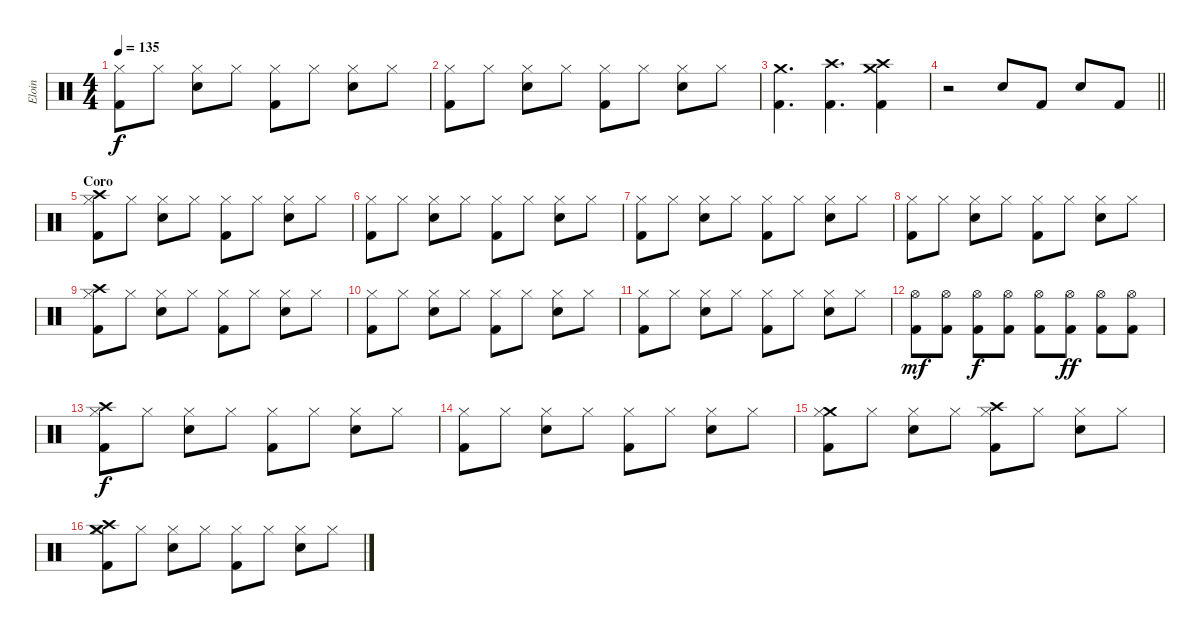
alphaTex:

\track ("Eloin" "Eloin") {instrument percussion}
\staff {score}
\articulation defaults
\ts (4 4)
\tempo 135
\clef neutral
\ks c
("Hi-Hat (closed)" "Kick (hit) 2").8{dy f} "Hi-Hat (closed)".8 ("Hi-Hat (closed)" "Electric Snare (hit)").8 "Hi-Hat (closed)".8 ("Hi-Hat (closed)" "Kick (hit) 2").8 "Hi-Hat (closed)".8 ("Hi-Hat (closed)" "Electric Snare (hit)").8 "Hi-Hat (closed)".8 |
("Hi-Hat (closed)" "Kick (hit) 2").8 "Hi-Hat (closed)".8 ("Hi-Hat (closed)" "Electric Snare (hit)").8 "Hi-Hat (closed)".8 ("Hi-Hat (closed)" "Kick (hit) 2").8 "Hi-Hat (closed)".8 ("Hi-Hat (closed)" "Electric Snare (hit)").8 "Hi-Hat (closed)".8 |
("Kick (hit) 2" "Crash medium (hit)").4{d} ("Kick (hit) 2" "Crash high (hit)").4{d} ("Kick (hit) 2" "Crash high (hit)" "Crash medium (hit)").4 |
\barLineRight lightlight
r.2 "Electric Snare (hit)".8 "Kick (hit) 2".8 "Electric Snare (hit)".8 "Kick (hit) 2".8 |
\section ("" "Coro")
("Crash high (hit)" "Hi-Hat (closed)" "Kick (hit) 2").8 "Hi-Hat (closed)".8 ("Hi-Hat (closed)" "Electric Snare (hit)").8 "Hi-Hat (closed)".8 ("Hi-Hat (closed)" "Kick (hit) 2").8 "Hi-Hat (closed)".8 ("Hi-Hat (closed)" "Electric Snare (hit)").8 "Hi-Hat (closed)".8 |
("Hi-Hat (closed)" "Kick (hit) 2").8 "Hi-Hat (closed)".8 ("Hi-Hat (closed)" "Electric Snare (hit)").8 "Hi-Hat (closed)".8 ("Hi-Hat (closed)" "Kick (hit) 2").8 "Hi-Hat (closed)".8 ("Hi-Hat (closed)" "Electric Snare (hit)").8 "Hi-Hat (closed)".8 |
("Hi-Hat (closed)" "Kick (hit) 2").8 "Hi-Hat (closed)".8 ("Hi-Hat (closed)" "Electric Snare (hit)").8 "Hi-Hat (closed)".8 ("Hi-Hat (closed)" "Kick (hit) 2").8 "Hi-Hat (closed)".8 ("Hi-Hat (closed)" "Electric Snare (hit)").8 "Hi-Hat (closed)".8 |
("Hi-Hat (closed)" "Kick (hit) 2").8 "Hi-Hat (closed)".8 ("Hi-Hat (closed)" "Electric Snare (hit)").8 "Hi-Hat (closed)".8 ("Hi-Hat (closed)" "Kick (hit) 2").8 "Hi-Hat (closed)".8 ("Hi-Hat (closed)" "Electric Snare (hit)").8 "Hi-Hat (closed)".8 |
("Crash high (hit)" "Hi-Hat (closed)" "Kick (hit) 2").8 "Hi-Hat (closed)".8 ("Hi-Hat (closed)" "Electric Snare (hit)").8 "Hi-Hat (closed)".8 ("Hi-Hat (closed)" "Kick (hit) 2").8 "Hi-Hat (closed)".8 ("Hi-Hat (closed)" "Electric Snare (hit)").8 "Hi-Hat (closed)".8 |
("Hi-Hat (closed)" "Kick (hit) 2").8 "Hi-Hat (closed)".8 ("Hi-Hat (closed)" "Electric Snare (hit)").8 "Hi-Hat (closed)".8 ("Hi-Hat (closed)" "Kick (hit) 2").8 "Hi-Hat (closed)".8 ("Hi-Hat (closed)" "Electric Snare (hit)").8 "Hi-Hat (closed)".8 |
("Hi-Hat (closed)" "Kick (hit) 2").8 "Hi-Hat (closed)".8 ("Hi-Hat (closed)" "Electric Snare (hit)").8 "Hi-Hat (closed)".8 ("Hi-Hat (closed)" "Kick (hit) 2").8 "Hi-Hat (closed)".8 ("Hi-Hat (closed)" "Electric Snare (hit)").8 "Hi-Hat (closed)".8 |
("Hi-Hat (open)" "Kick (hit) 2").8{dy mf} ("Hi-Hat (open)" "Kick (hit) 2").8 ("Hi-Hat (open)" "Kick (hit) 2").8{dy f} ("Hi-Hat (open)" "Kick (hit) 2").8 ("Hi-Hat (open)" "Kick (hit) 2").8 ("Hi-Hat (open)" "Kick (hit) 2").8{dy ff} ("Hi-Hat (open)" "Kick (hit) 2").8 ("Hi-Hat (open)" "Kick (hit) 2").8 |
("Crash high (hit)" "Hi-Hat (closed)" "Kick (hit) 2").8{dy f} "Hi-Hat (closed)".8 ("Hi-Hat (closed)" "Electric Snare (hit)").8 "Hi-Hat (closed)".8 ("Hi-Hat (closed)" "Kick (hit) 2").8 "Hi-Hat (closed)".8 ("Hi-Hat (closed)" "Electric Snare (hit)").8 "Hi-Hat (closed)".8 |
("Hi-Hat (closed)" "Kick (hit) 2").8 "Hi-Hat (closed)".8 ("Hi-Hat (closed)" "Electric Snare (hit)").8 "Hi-Hat (closed)".8 ("Hi-Hat (closed)" "Kick (hit) 2").8 "Hi-Hat (closed)".8 ("Hi-Hat (closed)" "Electric Snare (hit)").8 "Hi-Hat (closed)".8 |
("Crash medium (hit)" "Hi-Hat (closed)" "Kick (hit) 2").8 "Hi-Hat (closed)".8 ("Hi-Hat (closed)" "Electric Snare (hit)").8 "Hi-Hat (closed)".8 ("Crash high (hit)" "Hi-Hat (closed)" "Kick (hit) 2").8 "Hi-Hat (closed)".8 ("Hi-Hat (closed)" "Electric Snare (hit)").8 "Hi-Hat (closed)".8 |
("Crash medium (hit)" "Crash high (hit)" "Hi-Hat (closed)" "Kick (hit) 2").8 "Hi-Hat (closed)".8 ("Hi-Hat (closed)" "Electric Snare (hit)").8 "Hi-Hat (closed)".8 ("Hi-Hat (closed)" "Kick (hit) 2").8 "Hi-Hat (closed)".8 ("Hi-Hat (closed)" "Electric Snare (hit)").8 "Hi-Hat (closed)".8
